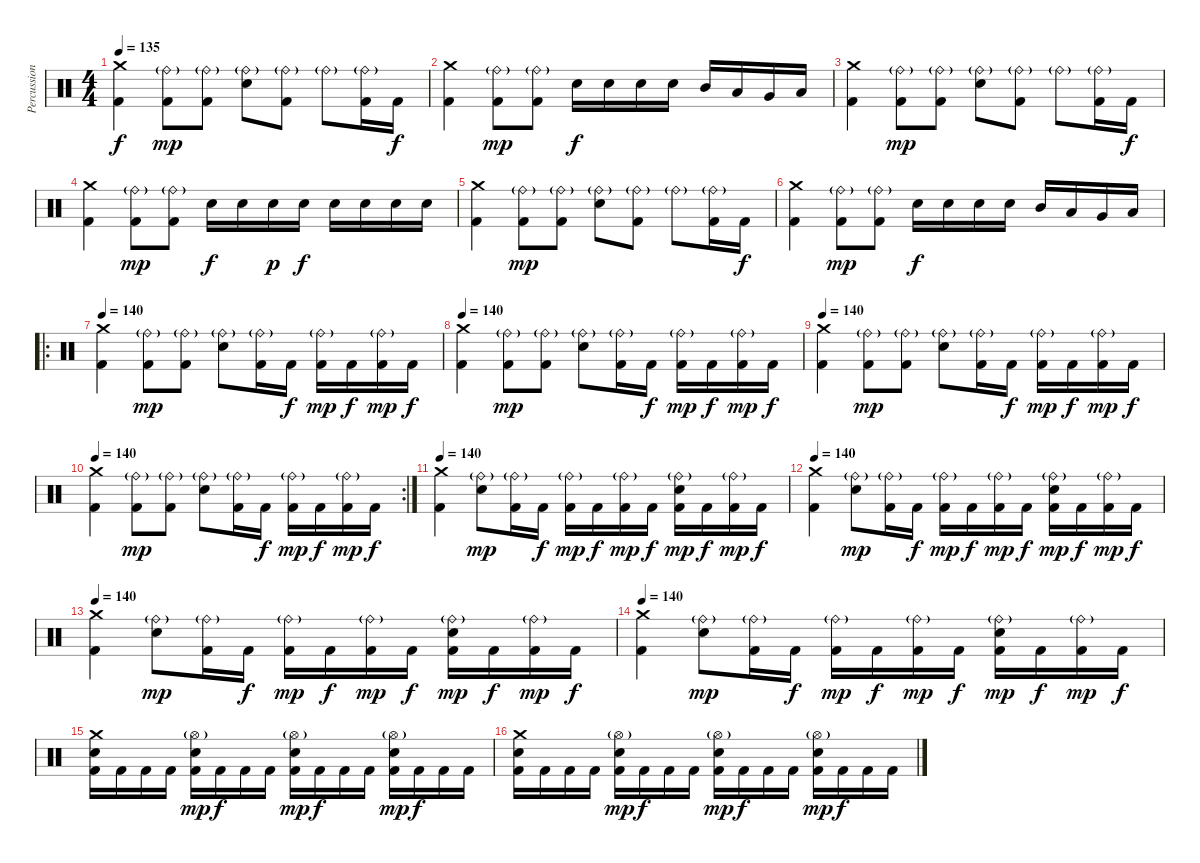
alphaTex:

\track ("Percussion" "Percussion") {instrument percussion}
\staff {score}
\articulation defaults
\ts (4 4)
\tempo 135
\clef neutral
\ks c
("Crash medium (hit)" "Kick (hit) 2").4{dy f} ("Ride (bell)"{g} "Kick (hit) 2").8{dy mp} ("Ride (bell)"{g} "Kick (hit) 2").8 ("Ride (bell)"{g} "Electric Snare (hit)").8 ("Ride (bell)"{g} "Kick (hit) 2").8 "Ride (bell)"{g}.8 ("Ride (bell)"{g} "Kick (hit) 2").16 "Kick (hit) 2".16{dy f} |
("Crash medium (hit)" "Kick (hit) 2").4 ("Ride (bell)"{g} "Kick (hit) 2").8{dy mp} ("Ride (bell)"{g} "Kick (hit) 2").8 "Electric Snare (hit)".16{dy f} "Electric Snare (hit)".16 "Electric Snare (hit)".16 "Electric Snare (hit)".16 "Mid Tom (hit)".16 "Low Tom (hit)".16 "Very Low Tom (hit)".16 "Low Floor Tom (hit)".16 |
("Crash medium (hit)" "Kick (hit) 2").4 ("Ride (bell)"{g} "Kick (hit) 2").8{dy mp} ("Ride (bell)"{g} "Kick (hit) 2").8 ("Ride (bell)"{g} "Electric Snare (hit)").8 ("Ride (bell)"{g} "Kick (hit) 2").8 "Ride (bell)"{g}.8 ("Ride (bell)"{g} "Kick (hit) 2").16 "Kick (hit) 2".16{dy f} |
("Crash medium (hit)" "Kick (hit) 2").4 ("Ride (bell)"{g} "Kick (hit) 2").8{dy mp} ("Ride (bell)"{g} "Kick (hit) 2").8 "Electric Snare (hit)".16{dy f} "Electric Snare (hit)".16 "Electric Snare (hit)".16{dy p} "Electric Snare (hit)".16{dy f} "Electric Snare (hit)".16 "Electric Snare (hit)".16 "Electric Snare (hit)".16 "Electric Snare (hit)".16 |
("Crash medium (hit)" "Kick (hit) 2").4 ("Ride (bell)"{g} "Kick (hit) 2").8{dy mp} ("Ride (bell)"{g} "Kick (hit) 2").8 ("Ride (bell)"{g} "Electric Snare (hit)").8 ("Ride (bell)"{g} "Kick (hit) 2").8 "Ride (bell)"{g}.8 ("Ride (bell)"{g} "Kick (hit) 2").16 "Kick (hit) 2".16{dy f} |
("Crash medium (hit)" "Kick (hit) 2").4 ("Ride (bell)"{g} "Kick (hit) 2").8{dy mp} ("Ride (bell)"{g} "Kick (hit) 2").8 "Electric Snare (hit)".16{dy f} "Electric Snare (hit)".16 "Electric Snare (hit)".16 "Electric Snare (hit)".16 "Mid Tom (hit)".16 "Low Tom (hit)".16 "Very Low Tom (hit)".16 "Low Floor Tom (hit)".16 |
\ro
\tempo 140
("Crash medium (hit)" "Kick (hit) 2").4 ("Ride (bell)"{g} "Kick (hit) 2").8{dy mp} ("Ride (bell)"{g} "Kick (hit) 2").8 ("Ride (bell)"{g} "Electric Snare (hit)").8 ("Ride (bell)"{g} "Kick (hit) 2").16 "Kick (hit) 2".16{dy f} ("Ride (bell)"{g} "Kick (hit) 2").16{dy mp} "Kick (hit) 2".16{dy f} ("Ride (bell)"{g} "Kick (hit) 2").16{dy mp} "Kick (hit) 2".16{dy f} |
\tempo 140
("Crash medium (hit)" "Kick (hit) 2").4 ("Ride (bell)"{g} "Kick (hit) 2").8{dy mp} ("Ride (bell)"{g} "Kick (hit) 2").8 ("Ride (bell)"{g} "Electric Snare (hit)").8 ("Ride (bell)"{g} "Kick (hit) 2").16 "Kick (hit) 2".16{dy f} ("Ride (bell)"{g} "Kick (hit) 2").16{dy mp} "Kick (hit) 2".16{dy f} ("Ride (bell)"{g} "Kick (hit) 2").16{dy mp} "Kick (hit) 2".16{dy f} |
\tempo 140
("Crash medium (hit)" "Kick (hit) 2").4 ("Ride (bell)"{g} "Kick (hit) 2").8{dy mp} ("Ride (bell)"{g} "Kick (hit) 2").8 ("Ride (bell)"{g} "Electric Snare (hit)").8 ("Ride (bell)"{g} "Kick (hit) 2").16 "Kick (hit) 2".16{dy f} ("Ride (bell)"{g} "Kick (hit) 2").16{dy mp} "Kick (hit) 2".16{dy f} ("Ride (bell)"{g} "Kick (hit) 2").16{dy mp} "Kick (hit) 2".16{dy f} |
\rc 2
\tempo 140
("Crash medium (hit)" "Kick (hit) 2").4 ("Ride (bell)"{g} "Kick (hit) 2").8{dy mp} ("Ride (bell)"{g} "Kick (hit) 2").8 ("Ride (bell)"{g} "Electric Snare (hit)").8 ("Ride (bell)"{g} "Kick (hit) 2").16 "Kick (hit) 2".16{dy f} ("Ride (bell)"{g} "Kick (hit) 2").16{dy mp} "Kick (hit) 2".16{dy f} ("Ride (bell)"{g} "Kick (hit) 2").16{dy mp} "Kick (hit) 2".16{dy f} |
\tempo 140
("Crash medium (hit)" "Kick (hit) 2").4 ("Ride (bell)"{g} "Electric Snare (hit)").8{dy mp} ("Ride (bell)"{g} "Kick (hit) 2").16 "Kick (hit) 2".16{dy f} ("Ride (bell)"{g} "Kick (hit) 2").16{dy mp} "Kick (hit) 2".16{dy f} ("Ride (bell)"{g} "Kick (hit) 2").16{dy mp} "Kick (hit) 2".16{dy f} ("Ride (bell)"{g} "Electric Snare (hit)" "Kick (hit) 2").16{dy mp} "Kick (hit) 2".16{dy f} ("Ride (bell)"{g} "Kick (hit) 2").16{dy mp} "Kick (hit) 2".16{dy f} |
\tempo 140
("Crash medium (hit)" "Kick (hit) 2").4 ("Ride (bell)"{g} "Electric Snare (hit)").8{dy mp} ("Ride (bell)"{g} "Kick (hit) 2").16 "Kick (hit) 2".16{dy f} ("Ride (bell)"{g} "Kick (hit) 2").16{dy mp} "Kick (hit) 2".16{dy f} ("Ride (bell)"{g} "Kick (hit) 2").16{dy mp} "Kick (hit) 2".16{dy f} ("Ride (bell)"{g} "Electric Snare (hit)" "Kick (hit) 2").16{dy mp} "Kick (hit) 2".16{dy f} ("Ride (bell)"{g} "Kick (hit) 2").16{dy mp} "Kick (hit) 2".16{dy f} |
\tempo 140
("Crash medium (hit)" "Kick (hit) 2").4 ("Ride (bell)"{g} "Electric Snare (hit)").8{dy mp} ("Ride (bell)"{g} "Kick (hit) 2").16 "Kick (hit) 2".16{dy f} ("Ride (bell)"{g} "Kick (hit) 2").16{dy mp} "Kick (hit) 2".16{dy f} ("Ride (bell)"{g} "Kick (hit) 2").16{dy mp} "Kick (hit) 2".16{dy f} ("Ride (bell)"{g} "Electric Snare (hit)" "Kick (hit) 2").16{dy mp} "Kick (hit) 2".16{dy f} ("Ride (bell)"{g} "Kick (hit) 2").16{dy mp} "Kick (hit) 2".16{dy f} |
\tempo 140
("Crash medium (hit)" "Kick (hit) 2").4 ("Ride (bell)"{g} "Electric Snare (hit)").8{dy mp} ("Ride (bell)"{g} "Kick (hit) 2").16 "Kick (hit) 2".16{dy f} ("Ride (bell)"{g} "Kick (hit) 2").16{dy mp} "Kick (hit) 2".16{dy f} ("Ride (bell)"{g} "Kick (hit) 2").16{dy mp} "Kick (hit) 2".16{dy f} ("Ride (bell)"{g} "Electric Snare (hit)" "Kick (hit) 2").16{dy mp} "Kick (hit) 2".16{dy f} ("Ride (bell)"{g} "Kick (hit) 2").16{dy mp} "Kick (hit) 2".16{dy f} |
("Crash medium (hit)" "Electric Snare (hit)" "Kick (hit) 2").16 "Kick (hit) 2".16 "Kick (hit) 2".16 "Kick (hit) 2".16 ("Hi-Hat (open)"{g} "Electric Snare (hit)" "Kick (hit) 2").16{dy mp} "Kick (hit) 2".16{dy f} "Kick (hit) 2".16 "Kick (hit) 2".16 ("Hi-Hat (open)"{g} "Electric Snare (hit)" "Kick (hit) 2").16{dy mp} "Kick (hit) 2".16{dy f} "Kick (hit) 2".16 "Kick (hit) 2".16 ("Hi-Hat (open)"{g} "Electric Snare (hit)" "Kick (hit) 2").16{dy mp} "Kick (hit) 2".16{dy f} "Kick (hit) 2".16 "Kick (hit) 2".16 |
("Crash medium (hit)" "Electric Snare (hit)" "Kick (hit) 2").16 "Kick (hit) 2".16 "Kick (hit) 2".16 "Kick (hit) 2".16 ("Hi-Hat (open)"{g} "Electric Snare (hit)" "Kick (hit) 2").16{dy mp} "Kick (hit) 2".16{dy f} "Kick (hit) 2".16 "Kick (hit) 2".16 ("Hi-Hat (open)"{g} "Electric Snare (hit)" "Kick (hit) 2").16{dy mp} "Kick (hit) 2".16{dy f} "Kick (hit) 2".16 "Kick (hit) 2".16 ("Hi-Hat (open)"{g} "Electric Snare (hit)" "Kick (hit) 2").16{dy mp} "Kick (hit) 2".16{dy f} "Kick (hit) 2".16 "Kick (hit) 2".16
